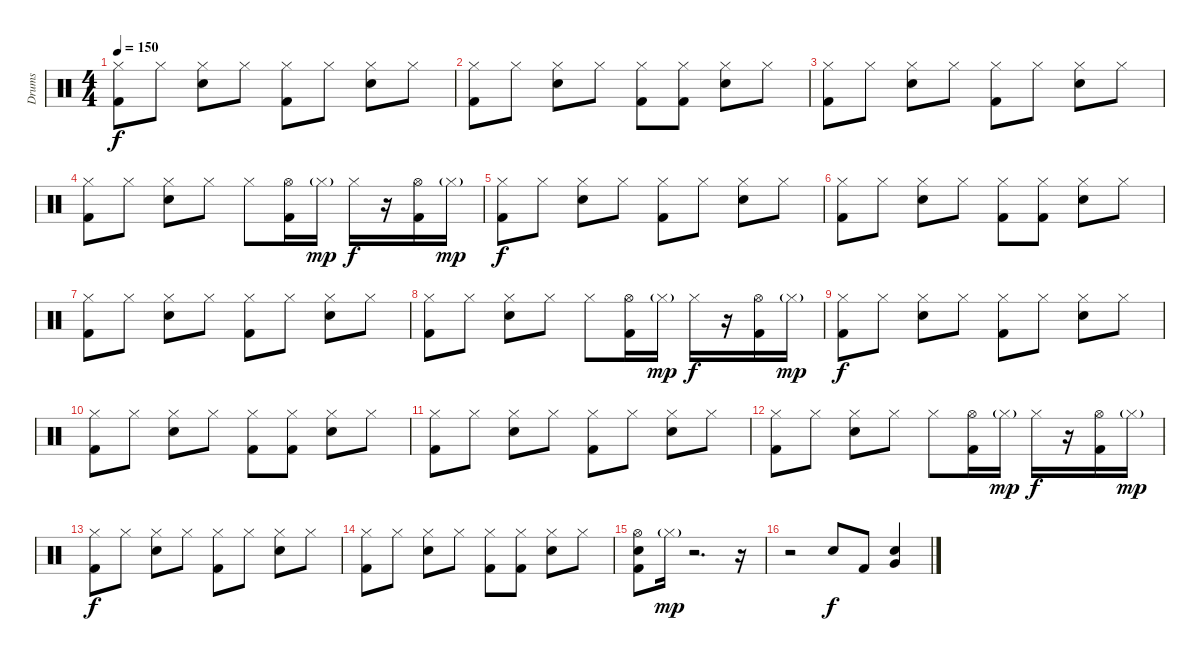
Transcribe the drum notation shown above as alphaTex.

\track ("Drums" "Drums") {instrument percussion}
\staff {score}
\articulation defaults
\ts (4 4)
\tempo 150
\clef neutral
\ks c
("Hi-Hat (closed)" "Kick (hit) 2").8{dy f} "Hi-Hat (closed)".8 ("Hi-Hat (closed)" "Electric Snare (hit)").8 "Hi-Hat (closed)".8 ("Hi-Hat (closed)" "Kick (hit) 2").8 "Hi-Hat (closed)".8 ("Hi-Hat (closed)" "Electric Snare (hit)").8 "Hi-Hat (closed)".8 |
("Hi-Hat (closed)" "Kick (hit) 2").8 "Hi-Hat (closed)".8 ("Hi-Hat (closed)" "Electric Snare (hit)").8 "Hi-Hat (closed)".8 ("Hi-Hat (closed)" "Kick (hit) 2").8 ("Hi-Hat (closed)" "Kick (hit) 2").8 ("Hi-Hat (closed)" "Electric Snare (hit)").8 "Hi-Hat (closed)".8 |
("Hi-Hat (closed)" "Kick (hit) 2").8 "Hi-Hat (closed)".8 ("Hi-Hat (closed)" "Electric Snare (hit)").8 "Hi-Hat (closed)".8 ("Hi-Hat (closed)" "Kick (hit) 2").8 "Hi-Hat (closed)".8 ("Hi-Hat (closed)" "Electric Snare (hit)").8 "Hi-Hat (closed)".8 |
("Hi-Hat (closed)" "Kick (hit) 2").8 "Hi-Hat (closed)".8 ("Hi-Hat (closed)" "Electric Snare (hit)").8 "Hi-Hat (closed)".8 "Hi-Hat (closed)".8 ("Hi-Hat (open)" "Kick (hit) 2").16 "Hi-Hat (closed)"{g}.16{dy mp} "Hi-Hat (closed)".16{dy f} r.16 ("Hi-Hat (open)" "Kick (hit) 2").16 "Hi-Hat (closed)"{g}.16{dy mp} |
("Hi-Hat (closed)" "Kick (hit) 2").8{dy f} "Hi-Hat (closed)".8 ("Hi-Hat (closed)" "Electric Snare (hit)").8 "Hi-Hat (closed)".8 ("Hi-Hat (closed)" "Kick (hit) 2").8 "Hi-Hat (closed)".8 ("Hi-Hat (closed)" "Electric Snare (hit)").8 "Hi-Hat (closed)".8 |
("Hi-Hat (closed)" "Kick (hit) 2").8 "Hi-Hat (closed)".8 ("Hi-Hat (closed)" "Electric Snare (hit)").8 "Hi-Hat (closed)".8 ("Hi-Hat (closed)" "Kick (hit) 2").8 ("Hi-Hat (closed)" "Kick (hit) 2").8 ("Hi-Hat (closed)" "Electric Snare (hit)").8 "Hi-Hat (closed)".8 |
("Hi-Hat (closed)" "Kick (hit) 2").8 "Hi-Hat (closed)".8 ("Hi-Hat (closed)" "Electric Snare (hit)").8 "Hi-Hat (closed)".8 ("Hi-Hat (closed)" "Kick (hit) 2").8 "Hi-Hat (closed)".8 ("Hi-Hat (closed)" "Electric Snare (hit)").8 "Hi-Hat (closed)".8 |
("Hi-Hat (closed)" "Kick (hit) 2").8 "Hi-Hat (closed)".8 ("Hi-Hat (closed)" "Electric Snare (hit)").8 "Hi-Hat (closed)".8 "Hi-Hat (closed)".8 ("Hi-Hat (open)" "Kick (hit) 2").16 "Hi-Hat (closed)"{g}.16{dy mp} "Hi-Hat (closed)".16{dy f} r.16 ("Hi-Hat (open)" "Kick (hit) 2").16 "Hi-Hat (closed)"{g}.16{dy mp} |
("Hi-Hat (closed)" "Kick (hit) 2").8{dy f} "Hi-Hat (closed)".8 ("Hi-Hat (closed)" "Electric Snare (hit)").8 "Hi-Hat (closed)".8 ("Hi-Hat (closed)" "Kick (hit) 2").8 "Hi-Hat (closed)".8 ("Hi-Hat (closed)" "Electric Snare (hit)").8 "Hi-Hat (closed)".8 |
("Hi-Hat (closed)" "Kick (hit) 2").8 "Hi-Hat (closed)".8 ("Hi-Hat (closed)" "Electric Snare (hit)").8 "Hi-Hat (closed)".8 ("Hi-Hat (closed)" "Kick (hit) 2").8 ("Hi-Hat (closed)" "Kick (hit) 2").8 ("Hi-Hat (closed)" "Electric Snare (hit)").8 "Hi-Hat (closed)".8 |
("Hi-Hat (closed)" "Kick (hit) 2").8 "Hi-Hat (closed)".8 ("Hi-Hat (closed)" "Electric Snare (hit)").8 "Hi-Hat (closed)".8 ("Hi-Hat (closed)" "Kick (hit) 2").8 "Hi-Hat (closed)".8 ("Hi-Hat (closed)" "Electric Snare (hit)").8 "Hi-Hat (closed)".8 |
("Hi-Hat (closed)" "Kick (hit) 2").8 "Hi-Hat (closed)".8 ("Hi-Hat (closed)" "Electric Snare (hit)").8 "Hi-Hat (closed)".8 "Hi-Hat (closed)".8 ("Hi-Hat (open)" "Kick (hit) 2").16 "Hi-Hat (closed)"{g}.16{dy mp} "Hi-Hat (closed)".16{dy f} r.16 ("Hi-Hat (open)" "Kick (hit) 2").16 "Hi-Hat (closed)"{g}.16{dy mp} |
("Hi-Hat (closed)" "Kick (hit) 2").8{dy f} "Hi-Hat (closed)".8 ("Hi-Hat (closed)" "Electric Snare (hit)").8 "Hi-Hat (closed)".8 ("Hi-Hat (closed)" "Kick (hit) 2").8 "Hi-Hat (closed)".8 ("Hi-Hat (closed)" "Electric Snare (hit)").8 "Hi-Hat (closed)".8 |
("Hi-Hat (closed)" "Kick (hit) 2").8 "Hi-Hat (closed)".8 ("Hi-Hat (closed)" "Electric Snare (hit)").8 "Hi-Hat (closed)".8 ("Hi-Hat (closed)" "Kick (hit) 2").8 ("Hi-Hat (closed)" "Kick (hit) 2").8 ("Hi-Hat (closed)" "Electric Snare (hit)").8 "Hi-Hat (closed)".8 |
("Hi-Hat (open)" "Electric Snare (hit)" "Kick (hit) 2").8 "Hi-Hat (closed)"{g}.16{dy mp} r.2{d} r.16 |
r.2 "Electric Snare (hit)".8{dy f} "Kick (hit) 2".8 ("Very Low Tom (hit)" "Electric Snare (hit)").4
